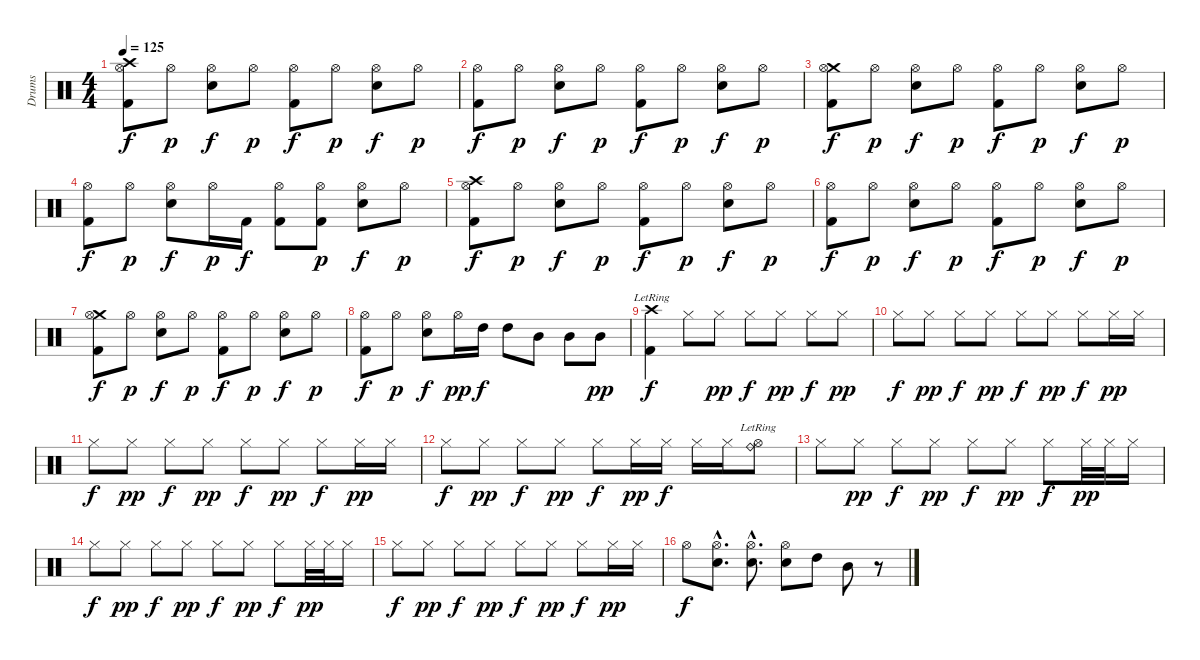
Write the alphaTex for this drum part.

\track ("Drums" "Drums") {instrument percussion}
\staff {score}
\articulation defaults
\ts (4 4)
\tempo 125
\clef neutral
\ks c
("Crash high (hit)" "Hi-Hat (open)" "Kick (hit) 2").8{dy f} "Hi-Hat (open)".8{dy p} ("Hi-Hat (open)" "Electric Snare (hit)").8{dy f} "Hi-Hat (open)".8{dy p} ("Hi-Hat (open)" "Kick (hit) 2").8{dy f} "Hi-Hat (open)".8{dy p} ("Hi-Hat (open)" "Electric Snare (hit)").8{dy f} "Hi-Hat (open)".8{dy p} |
("Hi-Hat (open)" "Kick (hit) 2").8{dy f} "Hi-Hat (open)".8{dy p} ("Hi-Hat (open)" "Electric Snare (hit)").8{dy f} "Hi-Hat (open)".8{dy p} ("Hi-Hat (open)" "Kick (hit) 2").8{dy f} "Hi-Hat (open)".8{dy p} ("Hi-Hat (open)" "Electric Snare (hit)").8{dy f} "Hi-Hat (open)".8{dy p} |
("Crash medium (hit)" "Hi-Hat (open)" "Kick (hit) 2").8{dy f} "Hi-Hat (open)".8{dy p} ("Hi-Hat (open)" "Electric Snare (hit)").8{dy f} "Hi-Hat (open)".8{dy p} ("Hi-Hat (open)" "Kick (hit) 2").8{dy f} "Hi-Hat (open)".8{dy p} ("Hi-Hat (open)" "Electric Snare (hit)").8{dy f} "Hi-Hat (open)".8{dy p} |
("Hi-Hat (open)" "Kick (hit) 2").8{dy f} "Hi-Hat (open)".8{dy p} ("Hi-Hat (open)" "Electric Snare (hit)").8{dy f} "Hi-Hat (open)".16{dy p} "Kick (hit) 2".16{dy f} ("Hi-Hat (open)" "Kick (hit) 2").8 ("Hi-Hat (open)" "Kick (hit) 2").8{dy p} ("Hi-Hat (open)" "Electric Snare (hit)").8{dy f} "Hi-Hat (open)".8{dy p} |
("Crash high (hit)" "Hi-Hat (open)" "Kick (hit) 2").8{dy f} "Hi-Hat (open)".8{dy p} ("Hi-Hat (open)" "Electric Snare (hit)").8{dy f} "Hi-Hat (open)".8{dy p} ("Hi-Hat (open)" "Kick (hit) 2").8{dy f} "Hi-Hat (open)".8{dy p} ("Hi-Hat (open)" "Electric Snare (hit)").8{dy f} "Hi-Hat (open)".8{dy p} |
("Hi-Hat (open)" "Kick (hit) 2").8{dy f} "Hi-Hat (open)".8{dy p} ("Hi-Hat (open)" "Electric Snare (hit)").8{dy f} "Hi-Hat (open)".8{dy p} ("Hi-Hat (open)" "Kick (hit) 2").8{dy f} "Hi-Hat (open)".8{dy p} ("Hi-Hat (open)" "Electric Snare (hit)").8{dy f} "Hi-Hat (open)".8{dy p} |
("Crash medium (hit)" "Hi-Hat (open)" "Kick (hit) 2").8{dy f} "Hi-Hat (open)".8{dy p} ("Hi-Hat (open)" "Electric Snare (hit)").8{dy f} "Hi-Hat (open)".8{dy p} ("Hi-Hat (open)" "Kick (hit) 2").8{dy f} "Hi-Hat (open)".8{dy p} ("Hi-Hat (open)" "Electric Snare (hit)").8{dy f} "Hi-Hat (open)".8{dy p} |
("Hi-Hat (open)" "Kick (hit) 2").8{dy f} "Hi-Hat (open)".8{dy p} ("Hi-Hat (open)" "Electric Snare (hit)").8{dy f} "Hi-Hat (open)".16{dy pp} "High Tom (hit)".16{dy f} "High Tom (hit)".8 "Mid Tom (hit)".8 "Mid Tom (hit)".8 "Mid Tom (hit)".8{dy pp} |
("Crash high (hit)"{lr} "Kick (hit) 2").4{dy f} "Hi-Hat (closed)".8 "Hi-Hat (closed)".8{dy pp} "Hi-Hat (closed)".8{dy f} "Hi-Hat (closed)".8{dy pp} "Hi-Hat (closed)".8{dy f} "Hi-Hat (closed)".8{dy pp} |
"Hi-Hat (closed)".8{dy f} "Hi-Hat (closed)".8{dy pp} "Hi-Hat (closed)".8{dy f} "Hi-Hat (closed)".8{dy pp} "Hi-Hat (closed)".8{dy f} "Hi-Hat (closed)".8{dy pp} "Hi-Hat (closed)".8{dy f} "Hi-Hat (closed)".16{dy pp} "Hi-Hat (closed)".16 |
"Hi-Hat (closed)".8{dy f} "Hi-Hat (closed)".8{dy pp} "Hi-Hat (closed)".8{dy f} "Hi-Hat (closed)".8{dy pp} "Hi-Hat (closed)".8{dy f} "Hi-Hat (closed)".8{dy pp} "Hi-Hat (closed)".8{dy f} "Hi-Hat (closed)".16{dy pp} "Hi-Hat (closed)".16 |
"Hi-Hat (closed)".8{dy f} "Hi-Hat (closed)".8{dy pp} "Hi-Hat (closed)".8{dy f} "Hi-Hat (closed)".8{dy pp} "Hi-Hat (closed)".8{dy f} "Hi-Hat (closed)".16{dy pp} "Hi-Hat (closed)".16{dy f} "Hi-Hat (closed)".16 "Hi-Hat (closed)".16 ("Ride (bell)"{lr} "Hi-Hat (open)").8 |
"Hi-Hat (closed)".8 "Hi-Hat (closed)".8{dy pp} "Hi-Hat (closed)".8{dy f} "Hi-Hat (closed)".8{dy pp} "Hi-Hat (closed)".8{dy f} "Hi-Hat (closed)".8{dy pp} "Hi-Hat (closed)".8{dy f} "Hi-Hat (closed)".32{dy pp} "Hi-Hat (closed)".32 "Hi-Hat (closed)".16 |
"Hi-Hat (closed)".8{dy f} "Hi-Hat (closed)".8{dy pp} "Hi-Hat (closed)".8{dy f} "Hi-Hat (closed)".8{dy pp} "Hi-Hat (closed)".8{dy f} "Hi-Hat (closed)".8{dy pp} "Hi-Hat (closed)".8{dy f} "Hi-Hat (closed)".32{dy pp} "Hi-Hat (closed)".32 "Hi-Hat (closed)".16 |
"Hi-Hat (closed)".8{dy f} "Hi-Hat (closed)".8{dy pp} "Hi-Hat (closed)".8{dy f} "Hi-Hat (closed)".8{dy pp} "Hi-Hat (closed)".8{dy f} "Hi-Hat (closed)".8{dy pp} "Hi-Hat (closed)".8{dy f} "Hi-Hat (closed)".16{dy pp} "Hi-Hat (closed)".16 |
"Hi-Hat (open)".8{dy f} ("Hi-Hat (open)"{hac} "Electric Snare (hit)"{hac}).8{d} ("Hi-Hat (open)"{hac} "Electric Snare (hit)"{hac}).8{d} ("Hi-Hat (open)" "Electric Snare (hit)").8 "High Tom (hit)".8 "Mid Tom (hit)".8 r.8
